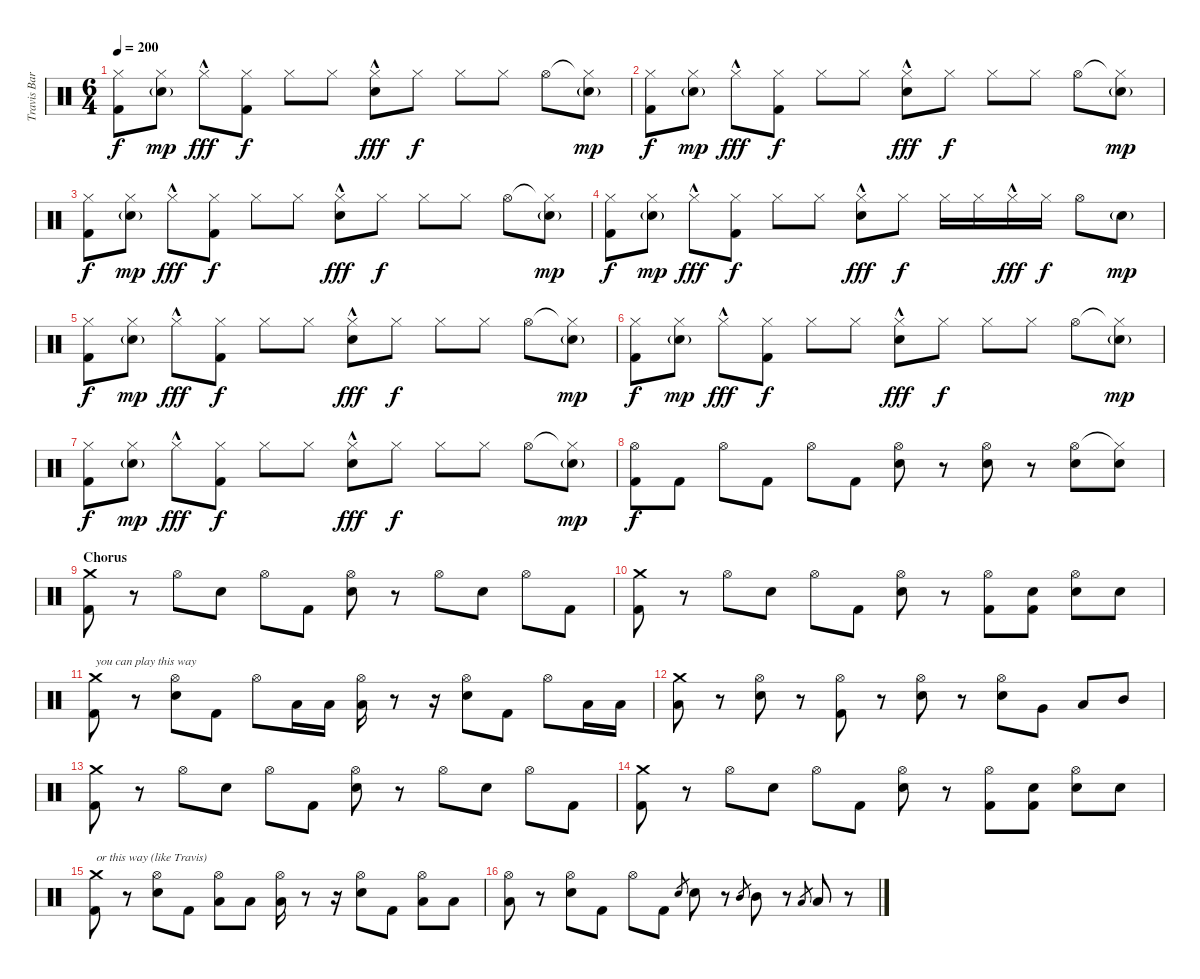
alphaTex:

\track ("Travis Barker - Drums" "Travis Bar") {instrument percussion}
\staff {score}
\articulation defaults
\ts (6 4)
\tempo 200
\clef neutral
\ks c
("Hi-Hat (closed)" "Kick (hit) 2").8{dy f} ("Hi-Hat (closed)" "Electric Snare (hit)"{g}).8{dy mp} "Hi-Hat (closed)"{hac}.8{dy fff} ("Hi-Hat (closed)" "Kick (hit) 2").8{dy f} "Hi-Hat (closed)".8 "Hi-Hat (closed)".8 ("Hi-Hat (closed)"{hac} "Electric Snare (hit)").8{dy fff} "Hi-Hat (closed)".8{dy f} "Hi-Hat (closed)".8 "Hi-Hat (closed)".8 "Hi-Hat (open)".8 ("Hi-Hat (closed)"{t} "Electric Snare (hit)"{g}).8{dy mp} |
("Hi-Hat (closed)" "Kick (hit) 2").8{dy f} ("Hi-Hat (closed)" "Electric Snare (hit)"{g}).8{dy mp} "Hi-Hat (closed)"{hac}.8{dy fff} ("Hi-Hat (closed)" "Kick (hit) 2").8{dy f} "Hi-Hat (closed)".8 "Hi-Hat (closed)".8 ("Hi-Hat (closed)"{hac} "Electric Snare (hit)").8{dy fff} "Hi-Hat (closed)".8{dy f} "Hi-Hat (closed)".8 "Hi-Hat (closed)".8 "Hi-Hat (open)".8 ("Hi-Hat (closed)"{t} "Electric Snare (hit)"{g}).8{dy mp} |
("Hi-Hat (closed)" "Kick (hit) 2").8{dy f} ("Hi-Hat (closed)" "Electric Snare (hit)"{g}).8{dy mp} "Hi-Hat (closed)"{hac}.8{dy fff} ("Hi-Hat (closed)" "Kick (hit) 2").8{dy f} "Hi-Hat (closed)".8 "Hi-Hat (closed)".8 ("Hi-Hat (closed)"{hac} "Electric Snare (hit)").8{dy fff} "Hi-Hat (closed)".8{dy f} "Hi-Hat (closed)".8 "Hi-Hat (closed)".8 "Hi-Hat (open)".8 ("Hi-Hat (closed)"{t} "Electric Snare (hit)"{g}).8{dy mp} |
("Hi-Hat (closed)" "Kick (hit) 2").8{dy f} ("Hi-Hat (closed)" "Electric Snare (hit)"{g}).8{dy mp} "Hi-Hat (closed)"{hac}.8{dy fff} ("Hi-Hat (closed)" "Kick (hit) 2").8{dy f} "Hi-Hat (closed)".8 "Hi-Hat (closed)".8 ("Hi-Hat (closed)"{hac} "Electric Snare (hit)").8{dy fff} "Hi-Hat (closed)".8{dy f} "Hi-Hat (closed)".16 "Hi-Hat (closed)".16 "Hi-Hat (closed)"{hac}.16{dy fff} "Hi-Hat (closed)".16{dy f} "Hi-Hat (open)".8 "Electric Snare (hit)"{g}.8{dy mp} |
("Hi-Hat (closed)" "Kick (hit) 2").8{dy f} ("Hi-Hat (closed)" "Electric Snare (hit)"{g}).8{dy mp} "Hi-Hat (closed)"{hac}.8{dy fff} ("Hi-Hat (closed)" "Kick (hit) 2").8{dy f} "Hi-Hat (closed)".8 "Hi-Hat (closed)".8 ("Hi-Hat (closed)"{hac} "Electric Snare (hit)").8{dy fff} "Hi-Hat (closed)".8{dy f} "Hi-Hat (closed)".8 "Hi-Hat (closed)".8 "Hi-Hat (open)".8 ("Hi-Hat (closed)"{t} "Electric Snare (hit)"{g}).8{dy mp} |
("Hi-Hat (closed)" "Kick (hit) 2").8{dy f} ("Hi-Hat (closed)" "Electric Snare (hit)"{g}).8{dy mp} "Hi-Hat (closed)"{hac}.8{dy fff} ("Hi-Hat (closed)" "Kick (hit) 2").8{dy f} "Hi-Hat (closed)".8 "Hi-Hat (closed)".8 ("Hi-Hat (closed)"{hac} "Electric Snare (hit)").8{dy fff} "Hi-Hat (closed)".8{dy f} "Hi-Hat (closed)".8 "Hi-Hat (closed)".8 "Hi-Hat (open)".8 ("Hi-Hat (closed)"{t} "Electric Snare (hit)"{g}).8{dy mp} |
("Hi-Hat (closed)" "Kick (hit) 2").8{dy f} ("Hi-Hat (closed)" "Electric Snare (hit)"{g}).8{dy mp} "Hi-Hat (closed)"{hac}.8{dy fff} ("Hi-Hat (closed)" "Kick (hit) 2").8{dy f} "Hi-Hat (closed)".8 "Hi-Hat (closed)".8 ("Hi-Hat (closed)"{hac} "Electric Snare (hit)").8{dy fff} "Hi-Hat (closed)".8{dy f} "Hi-Hat (closed)".8 "Hi-Hat (closed)".8 "Hi-Hat (open)".8 ("Hi-Hat (closed)"{t} "Electric Snare (hit)"{g}).8{dy mp} |
("Hi-Hat (open)" "Kick (hit) 2").8{dy f} "Kick (hit) 2".8 "Hi-Hat (open)".8 "Kick (hit) 2".8 "Hi-Hat (open)".8 "Kick (hit) 2".8 ("Hi-Hat (open)" "Electric Snare (hit)").8 r.8 ("Hi-Hat (open)" "Electric Snare (hit)").8 r.8 ("Hi-Hat (open)" "Electric Snare (hit)").8 ("Hi-Hat (closed)"{t} "Electric Snare (hit)").8 |
\section ("" "Chorus")
("Crash medium (hit)" "Kick (hit) 2").8 r.8 "Hi-Hat (open)".8 "Electric Snare (hit)".8 "Hi-Hat (open)".8 "Kick (hit) 2".8 ("Hi-Hat (open)" "Electric Snare (hit)").8 r.8 "Hi-Hat (open)".8 "Electric Snare (hit)".8 "Hi-Hat (open)".8 "Kick (hit) 2".8 |
("Crash medium (hit)" "Kick (hit) 2").8 r.8 "Hi-Hat (open)".8 "Electric Snare (hit)".8 "Hi-Hat (open)".8 "Kick (hit) 2".8 ("Hi-Hat (open)" "Electric Snare (hit)").8 r.8 ("Hi-Hat (open)" "Kick (hit) 2").8 ("Electric Snare (hit)" "Kick (hit) 2").8 ("Hi-Hat (open)" "Electric Snare (hit)").8 "Electric Snare (hit)".8 |
("Crash medium (hit)" "Kick (hit) 2").8{txt "you can play this way"} r.8 ("Hi-Hat (open)" "Electric Snare (hit)").8 "Kick (hit) 2".8 "Hi-Hat (open)".8 "Low Tom (hit)".16 "Low Tom (hit)".16 ("Hi-Hat (open)" "Low Tom (hit)").16 r.8 r.16 ("Hi-Hat (open)" "Electric Snare (hit)").8 "Kick (hit) 2".8 "Hi-Hat (open)".8 "Low Tom (hit)".16 "Low Tom (hit)".16 |
("Crash medium (hit)" "Low Tom (hit)").8 r.8 ("Hi-Hat (open)" "Electric Snare (hit)").8 r.8 ("Hi-Hat (open)" "Kick (hit) 2").8 r.8 ("Hi-Hat (open)" "Electric Snare (hit)").8 r.8 ("Hi-Hat (open)" "Electric Snare (hit)").8 "Very Low Tom (hit)".8 "Low Tom (hit)".8 "Mid Tom (hit)".8 |
("Crash medium (hit)" "Kick (hit) 2").8 r.8 "Hi-Hat (open)".8 "Electric Snare (hit)".8 "Hi-Hat (open)".8 "Kick (hit) 2".8 ("Hi-Hat (open)" "Electric Snare (hit)").8 r.8 "Hi-Hat (open)".8 "Electric Snare (hit)".8 "Hi-Hat (open)".8 "Kick (hit) 2".8 |
("Crash medium (hit)" "Kick (hit) 2").8 r.8 "Hi-Hat (open)".8 "Electric Snare (hit)".8 "Hi-Hat (open)".8 "Kick (hit) 2".8 ("Hi-Hat (open)" "Electric Snare (hit)").8 r.8 ("Hi-Hat (open)" "Kick (hit) 2").8 ("Electric Snare (hit)" "Kick (hit) 2").8 ("Hi-Hat (open)" "Electric Snare (hit)").8 "Electric Snare (hit)".8 |
("Crash medium (hit)" "Kick (hit) 2").8{txt "or this way (like Travis)"} r.8 ("Hi-Hat (open)" "Electric Snare (hit)").8 "Kick (hit) 2".8 ("Hi-Hat (open)" "Low Tom (hit)").8 "Low Tom (hit)".8 ("Hi-Hat (open)" "Low Tom (hit)").16 r.8 r.16 ("Hi-Hat (open)" "Electric Snare (hit)").8 "Kick (hit) 2".8 ("Hi-Hat (open)" "Low Tom (hit)").8 "Low Tom (hit)".8 |
("Hi-Hat (open)" "Low Tom (hit)").8 r.8 ("Hi-Hat (open)" "Electric Snare (hit)").8 "Kick (hit) 2".8 "Hi-Hat (open)".8 "Kick (hit) 2".8 "Electric Snare (hit)".8{gr} "Electric Snare (hit)".8 r.8 "Mid Tom (hit)".8{gr} "Mid Tom (hit)".8 r.8 "Low Tom (hit)".8{gr} "Low Tom (hit)".8 r.8
